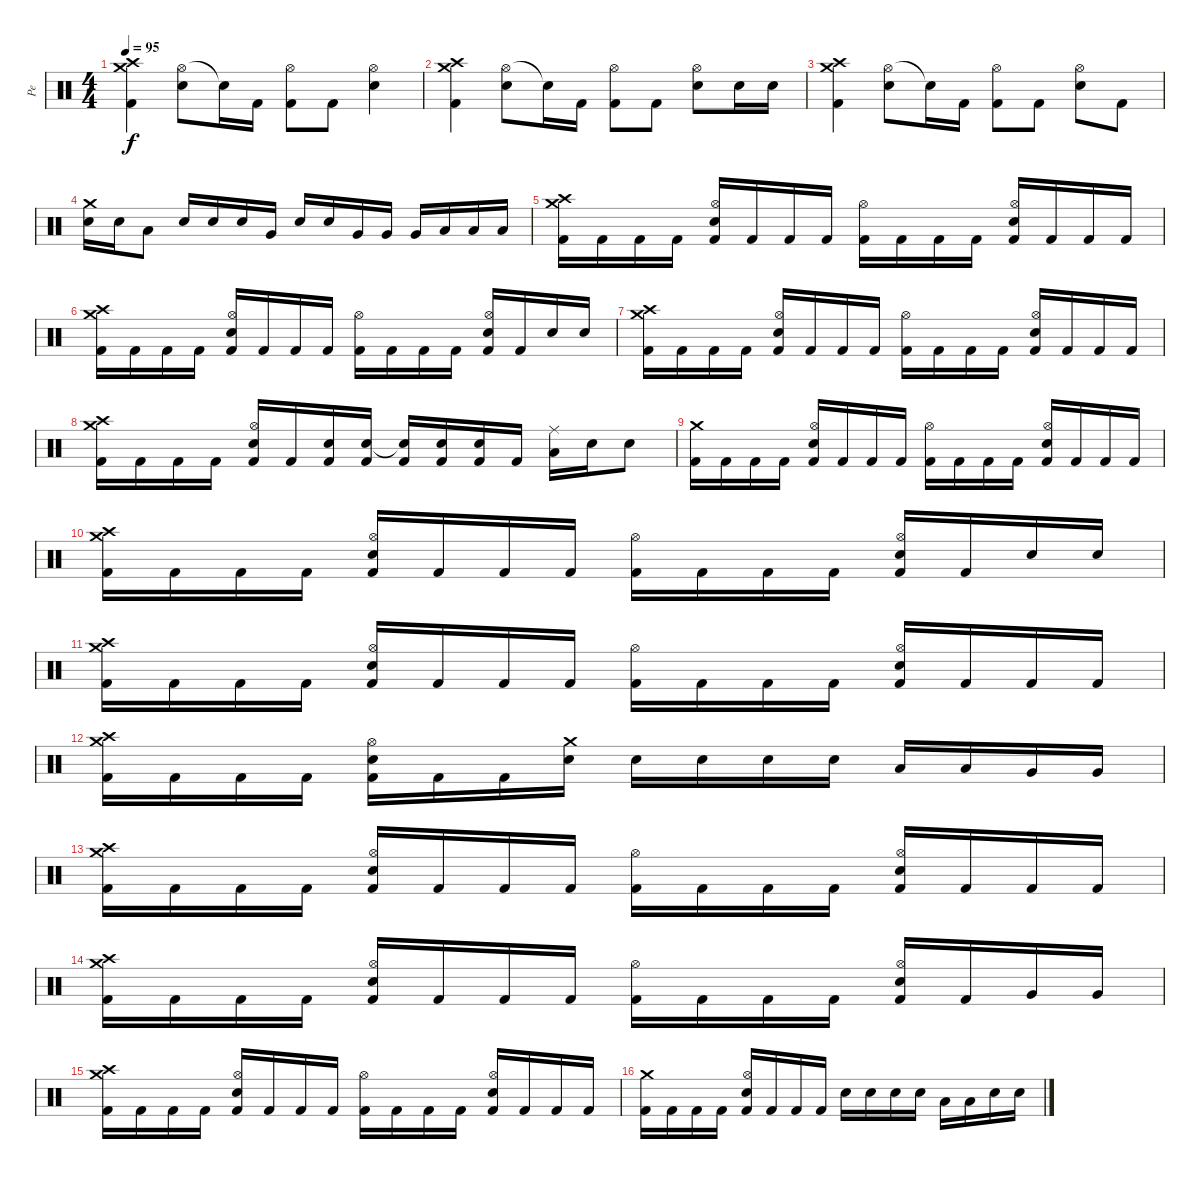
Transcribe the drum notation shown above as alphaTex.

\track ("Pe" "Pe") {instrument percussion}
\staff {score}
\articulation defaults
\ts (4 4)
\tempo 95
\clef neutral
\ks c
("Crash medium (hit)" "Crash high (hit)" "Kick (hit) 2").4{dy f} ("Hi-Hat (open)" "Electric Snare (hit)").8 "Snare (hit)"{t}.16 "Kick (hit) 2".16 ("Hi-Hat (open)" "Kick (hit) 2").8 "Kick (hit) 2".8 ("Hi-Hat (open)" "Electric Snare (hit)").4 |
("Crash medium (hit)" "Crash high (hit)" "Kick (hit) 2").4 ("Hi-Hat (open)" "Electric Snare (hit)").8 "Snare (hit)"{t}.16 "Kick (hit) 2".16 ("Hi-Hat (open)" "Kick (hit) 2").8 "Kick (hit) 2".8 ("Hi-Hat (open)" "Electric Snare (hit)").8 "Electric Snare (hit)".16 "Electric Snare (hit)".16 |
("Crash medium (hit)" "Crash high (hit)" "Kick (hit) 2").4 ("Hi-Hat (open)" "Electric Snare (hit)").8 "Snare (hit)"{t}.16 "Kick (hit) 2".16 ("Hi-Hat (open)" "Kick (hit) 2").8 "Kick (hit) 2".8 ("Hi-Hat (open)" "Electric Snare (hit)").8 "Kick (hit) 2".8 |
("Crash medium (hit)" "Electric Snare (hit)").16 "Electric Snare (hit)".16 "Low Tom (hit)".8 "Electric Snare (hit)".16 "Electric Snare (hit)".16 "Electric Snare (hit)".16 "Very Low Tom (hit)".16 "Electric Snare (hit)".16 "Electric Snare (hit)".16 "Very Low Tom (hit)".16 "Very Low Tom (hit)".16 "Very Low Tom (hit)".16 "Low Floor Tom (hit)".16 "Low Floor Tom (hit)".16 "Low Floor Tom (hit)".16 |
("Crash medium (hit)" "Crash high (hit)" "Kick (hit) 2").16 "Kick (hit) 2".16 "Kick (hit) 2".16 "Kick (hit) 2".16 ("Hi-Hat (open)" "Electric Snare (hit)" "Kick (hit) 2").16 "Kick (hit) 2".16 "Kick (hit) 2".16 "Kick (hit) 2".16 ("Hi-Hat (open)" "Kick (hit) 2").16 "Kick (hit) 2".16 "Kick (hit) 2".16 "Kick (hit) 2".16 ("Hi-Hat (open)" "Electric Snare (hit)" "Kick (hit) 2").16 "Kick (hit) 2".16 "Kick (hit) 2".16 "Kick (hit) 2".16 |
("Crash medium (hit)" "Crash high (hit)" "Kick (hit) 2").16 "Kick (hit) 2".16 "Kick (hit) 2".16 "Kick (hit) 2".16 ("Hi-Hat (open)" "Electric Snare (hit)" "Kick (hit) 2").16 "Kick (hit) 2".16 "Kick (hit) 2".16 "Kick (hit) 2".16 ("Hi-Hat (open)" "Kick (hit) 2").16 "Kick (hit) 2".16 "Kick (hit) 2".16 "Kick (hit) 2".16 ("Hi-Hat (open)" "Electric Snare (hit)" "Kick (hit) 2").16 "Kick (hit) 2".16 "Electric Snare (hit)".16 "Electric Snare (hit)".16 |
("Crash medium (hit)" "Crash high (hit)" "Kick (hit) 2").16 "Kick (hit) 2".16 "Kick (hit) 2".16 "Kick (hit) 2".16 ("Hi-Hat (open)" "Electric Snare (hit)" "Kick (hit) 2").16 "Kick (hit) 2".16 "Kick (hit) 2".16 "Kick (hit) 2".16 ("Hi-Hat (open)" "Kick (hit) 2").16 "Kick (hit) 2".16 "Kick (hit) 2".16 "Kick (hit) 2".16 ("Hi-Hat (open)" "Electric Snare (hit)" "Kick (hit) 2").16 "Kick (hit) 2".16 "Kick (hit) 2".16 "Kick (hit) 2".16 |
("Crash medium (hit)" "Crash high (hit)" "Kick (hit) 2").16 "Kick (hit) 2".16 "Kick (hit) 2".16 "Kick (hit) 2".16 ("Hi-Hat (open)" "Electric Snare (hit)" "Kick (hit) 2").16 "Kick (hit) 2".16 ("Electric Snare (hit)" "Kick (hit) 2").16 ("Electric Snare (hit)" "Kick (hit) 2").16 ("Electric Snare (hit)"{t} "Kick (hit) 2").16 ("Electric Snare (hit)" "Kick (hit) 2").16 ("Electric Snare (hit)" "Kick (hit) 2").16 "Kick (hit) 2".16 ("Ride (middle)" "Low Tom (hit)").16 "Electric Snare (hit)".16 "Electric Snare (hit)".8 |
("Crash medium (hit)" "Kick (hit) 2").16 "Kick (hit) 2".16 "Kick (hit) 2".16 "Kick (hit) 2".16 ("Hi-Hat (open)" "Electric Snare (hit)" "Kick (hit) 2").16 "Kick (hit) 2".16 "Kick (hit) 2".16 "Kick (hit) 2".16 ("Hi-Hat (open)" "Kick (hit) 2").16 "Kick (hit) 2".16 "Kick (hit) 2".16 "Kick (hit) 2".16 ("Hi-Hat (open)" "Electric Snare (hit)" "Kick (hit) 2").16 "Kick (hit) 2".16 "Kick (hit) 2".16 "Kick (hit) 2".16 |
("Crash medium (hit)" "Crash high (hit)" "Kick (hit) 2").16 "Kick (hit) 2".16 "Kick (hit) 2".16 "Kick (hit) 2".16 ("Hi-Hat (open)" "Electric Snare (hit)" "Kick (hit) 2").16 "Kick (hit) 2".16 "Kick (hit) 2".16 "Kick (hit) 2".16 ("Hi-Hat (open)" "Kick (hit) 2").16 "Kick (hit) 2".16 "Kick (hit) 2".16 "Kick (hit) 2".16 ("Hi-Hat (open)" "Electric Snare (hit)" "Kick (hit) 2").16 "Kick (hit) 2".16 "Electric Snare (hit)".16 "Electric Snare (hit)".16 |
("Crash medium (hit)" "Crash high (hit)" "Kick (hit) 2").16 "Kick (hit) 2".16 "Kick (hit) 2".16 "Kick (hit) 2".16 ("Hi-Hat (open)" "Electric Snare (hit)" "Kick (hit) 2").16 "Kick (hit) 2".16 "Kick (hit) 2".16 "Kick (hit) 2".16 ("Hi-Hat (open)" "Kick (hit) 2").16 "Kick (hit) 2".16 "Kick (hit) 2".16 "Kick (hit) 2".16 ("Hi-Hat (open)" "Electric Snare (hit)" "Kick (hit) 2").16 "Kick (hit) 2".16 "Kick (hit) 2".16 "Kick (hit) 2".16 |
("Crash medium (hit)" "Crash high (hit)" "Kick (hit) 2").16 "Kick (hit) 2".16 "Kick (hit) 2".16 "Kick (hit) 2".16 ("Hi-Hat (open)" "Electric Snare (hit)" "Kick (hit) 2").16 "Kick (hit) 2".16 "Kick (hit) 2".16 ("Crash medium (hit)" "Electric Snare (hit)").16 "Electric Snare (hit)".16 "Electric Snare (hit)".16 "Electric Snare (hit)".16 "Electric Snare (hit)".16 "Low Tom (hit)".16 "Low Tom (hit)".16 "Very Low Tom (hit)".16 "Very Low Tom (hit)".16 |
("Crash medium (hit)" "Crash high (hit)" "Kick (hit) 2").16 "Kick (hit) 2".16 "Kick (hit) 2".16 "Kick (hit) 2".16 ("Hi-Hat (open)" "Electric Snare (hit)" "Kick (hit) 2").16 "Kick (hit) 2".16 "Kick (hit) 2".16 "Kick (hit) 2".16 ("Hi-Hat (open)" "Kick (hit) 2").16 "Kick (hit) 2".16 "Kick (hit) 2".16 "Kick (hit) 2".16 ("Hi-Hat (open)" "Electric Snare (hit)" "Kick (hit) 2").16 "Kick (hit) 2".16 "Kick (hit) 2".16 "Kick (hit) 2".16 |
("Crash medium (hit)" "Crash high (hit)" "Kick (hit) 2").16 "Kick (hit) 2".16 "Kick (hit) 2".16 "Kick (hit) 2".16 ("Hi-Hat (open)" "Electric Snare (hit)" "Kick (hit) 2").16 "Kick (hit) 2".16 "Kick (hit) 2".16 "Kick (hit) 2".16 ("Hi-Hat (open)" "Kick (hit) 2").16 "Kick (hit) 2".16 "Kick (hit) 2".16 "Kick (hit) 2".16 ("Hi-Hat (open)" "Electric Snare (hit)" "Kick (hit) 2").16 "Kick (hit) 2".16 "Very Low Tom (hit)".16 "Very Low Tom (hit)".16 |
("Crash medium (hit)" "Crash high (hit)" "Kick (hit) 2").16 "Kick (hit) 2".16 "Kick (hit) 2".16 "Kick (hit) 2".16 ("Hi-Hat (open)" "Electric Snare (hit)" "Kick (hit) 2").16 "Kick (hit) 2".16 "Kick (hit) 2".16 "Kick (hit) 2".16 ("Hi-Hat (open)" "Kick (hit) 2").16 "Kick (hit) 2".16 "Kick (hit) 2".16 "Kick (hit) 2".16 ("Hi-Hat (open)" "Electric Snare (hit)" "Kick (hit) 2").16 "Kick (hit) 2".16 "Kick (hit) 2".16 "Kick (hit) 2".16 |
("Crash medium (hit)" "Kick (hit) 2").16 "Kick (hit) 2".16 "Kick (hit) 2".16 "Kick (hit) 2".16 ("Hi-Hat (open)" "Electric Snare (hit)" "Kick (hit) 2").16 "Kick (hit) 2".16 "Kick (hit) 2".16 "Kick (hit) 2".16 "Electric Snare (hit)".16 "Electric Snare (hit)".16 "Electric Snare (hit)".16 "Electric Snare (hit)".16 "Low Tom (hit)".16 "Low Tom (hit)".16 "Electric Snare (hit)".16 "Electric Snare (hit)".16
